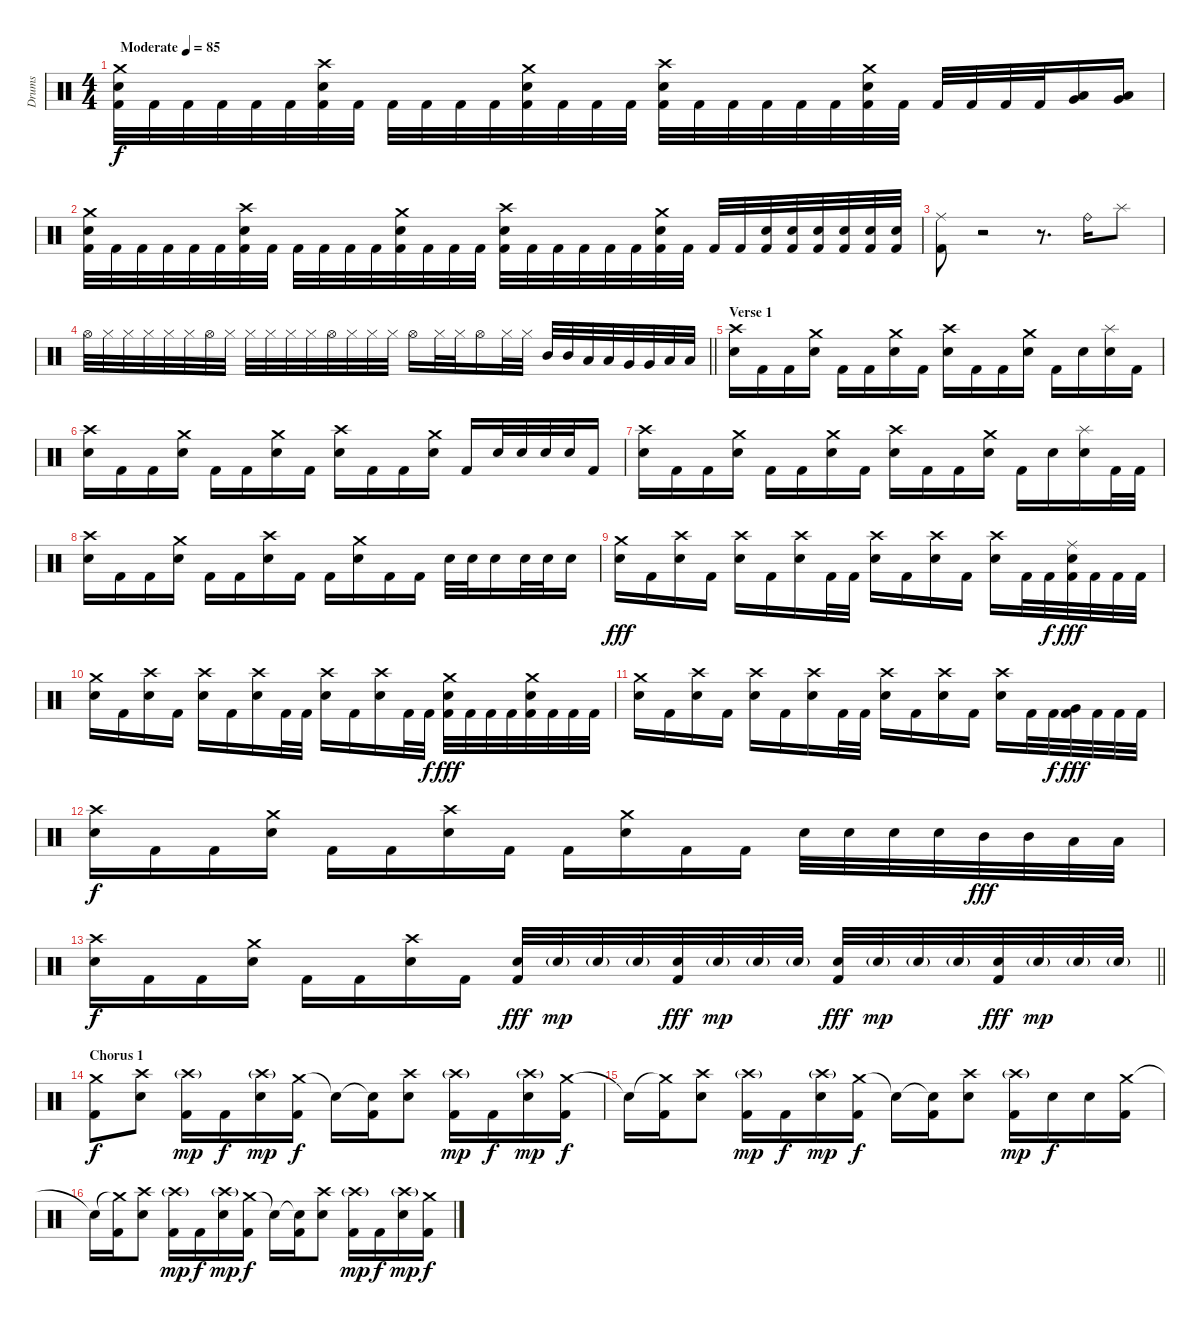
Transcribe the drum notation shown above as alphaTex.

\track ("Drums" "Drums") {instrument percussion}
\staff {score}
\articulation defaults
\ts (4 4)
\tempo (85 "Moderate")
\clef neutral
\ks c
("Crash medium (hit)" "Electric Snare (hit)" "Kick (hit) 2").32{dy f} "Kick (hit) 2".32 "Kick (hit) 2".32 "Kick (hit) 2".32 "Kick (hit) 2".32 "Kick (hit) 2".32 ("Crash high (hit)" "Electric Snare (hit)" "Kick (hit) 2").32 "Kick (hit) 2".32 "Kick (hit) 2".32 "Kick (hit) 2".32 "Kick (hit) 2".32 "Kick (hit) 2".32 ("Crash medium (hit)" "Electric Snare (hit)" "Kick (hit) 2").32 "Kick (hit) 2".32 "Kick (hit) 2".32 "Kick (hit) 2".32 ("Crash high (hit)" "Electric Snare (hit)" "Kick (hit) 2").32 "Kick (hit) 2".32 "Kick (hit) 2".32 "Kick (hit) 2".32 "Kick (hit) 2".32 "Kick (hit) 2".32 ("Crash medium (hit)" "Electric Snare (hit)" "Kick (hit) 2").32 "Kick (hit) 2".32 "Kick (hit) 2".32 "Kick (hit) 2".32 "Kick (hit) 2".32 "Kick (hit) 2".32 ("Very Low Tom (hit)" "Low Floor Tom (hit)").16 ("Very Low Tom (hit)" "Low Floor Tom (hit)").16 |
("Crash medium (hit)" "Electric Snare (hit)" "Kick (hit) 2").32 "Kick (hit) 2".32 "Kick (hit) 2".32 "Kick (hit) 2".32 "Kick (hit) 2".32 "Kick (hit) 2".32 ("Crash high (hit)" "Electric Snare (hit)" "Kick (hit) 2").32 "Kick (hit) 2".32 "Kick (hit) 2".32 "Kick (hit) 2".32 "Kick (hit) 2".32 "Kick (hit) 2".32 ("Crash medium (hit)" "Electric Snare (hit)" "Kick (hit) 2").32 "Kick (hit) 2".32 "Kick (hit) 2".32 "Kick (hit) 2".32 ("Crash high (hit)" "Electric Snare (hit)" "Kick (hit) 2").32 "Kick (hit) 2".32 "Kick (hit) 2".32 "Kick (hit) 2".32 "Kick (hit) 2".32 "Kick (hit) 2".32 ("Crash medium (hit)" "Electric Snare (hit)" "Kick (hit) 2").32 "Kick (hit) 2".32 "Kick (hit) 2".32 "Kick (hit) 2".32 ("Electric Snare (hit)" "Kick (hit) 2").32 ("Electric Snare (hit)" "Kick (hit) 2").32 ("Electric Snare (hit)" "Kick (hit) 2").32 ("Electric Snare (hit)" "Kick (hit) 2").32 ("Electric Snare (hit)" "Kick (hit) 2").32 ("Electric Snare (hit)" "Kick (hit) 2").32 |
("Ride (middle)" "Kick (hit) 2").8 r.2 r.8{d} "Ride (bell)".16 "Splash (hit)".8 |
\barLineRight lightlight "Hi-Hat (open)".32 "Hi-Hat (closed)".32 "Hi-Hat (closed)".32 "Hi-Hat (closed)".32 "Hi-Hat (closed)".32 "Hi-Hat (closed)".32 "Hi-Hat (open)".32 "Hi-Hat (closed)".32 "Hi-Hat (closed)".32 "Hi-Hat (closed)".32 "Hi-Hat (closed)".32 "Hi-Hat (closed)".32 "Hi-Hat (open)".32 "Hi-Hat (closed)".32 "Hi-Hat (closed)".32 "Hi-Hat (closed)".32 "Hi-Hat (open)".16 "Hi-Hat (closed)".32 "Hi-Hat (closed)".32 "Hi-Hat (open)".16 "Hi-Hat (closed)".32 "Hi-Hat (closed)".32 "Mid Tom (hit)".32 "Mid Tom (hit)".32 "Low Tom (hit)".32 "Low Tom (hit)".32 "Very Low Tom (hit)".32 "Very Low Tom (hit)".32 "Low Floor Tom (hit)".32 "Low Floor Tom (hit)".32
|
\section ("" "Verse 1")
("Crash high (hit)" "Electric Snare (hit)").16 "Kick (hit) 2".16 "Kick (hit) 2".16 ("Crash medium (hit)" "Electric Snare (hit)").16 "Kick (hit) 2".16 "Kick (hit) 2".16 ("Crash medium (hit)" "Electric Snare (hit)").16 "Kick (hit) 2".16 ("Crash high (hit)" "Electric Snare (hit)").16 "Kick (hit) 2".16 "Kick (hit) 2".16 ("Crash medium (hit)" "Electric Snare (hit)").16 "Kick (hit) 2".16 "Electric Snare (hit)".16 ("Splash (hit)" "Electric Snare (hit)").16 "Kick (hit) 2".16 |
("Crash high (hit)" "Electric Snare (hit)").16 "Kick (hit) 2".16 "Kick (hit) 2".16 ("Crash medium (hit)" "Electric Snare (hit)").16 "Kick (hit) 2".16 "Kick (hit) 2".16 ("Crash medium (hit)" "Electric Snare (hit)").16 "Kick (hit) 2".16 ("Crash high (hit)" "Electric Snare (hit)").16 "Kick (hit) 2".16 "Kick (hit) 2".16 ("Crash medium (hit)" "Electric Snare (hit)").16 "Kick (hit) 2".16 "Electric Snare (hit)".32 "Electric Snare (hit)".32 "Electric Snare (hit)".32 "Electric Snare (hit)".32 "Kick (hit) 2".16 |
("Crash high (hit)" "Electric Snare (hit)").16 "Kick (hit) 2".16 "Kick (hit) 2".16 ("Crash medium (hit)" "Electric Snare (hit)").16 "Kick (hit) 2".16 "Kick (hit) 2".16 ("Crash medium (hit)" "Electric Snare (hit)").16 "Kick (hit) 2".16 ("Crash high (hit)" "Electric Snare (hit)").16 "Kick (hit) 2".16 "Kick (hit) 2".16 ("Crash medium (hit)" "Electric Snare (hit)").16 "Kick (hit) 2".16 "Electric Snare (hit)".16 ("Splash (hit)" "Electric Snare (hit)").16 "Kick (hit) 2".32 "Kick (hit) 2".32 |
("Crash high (hit)" "Electric Snare (hit)").16 "Kick (hit) 2".16 "Kick (hit) 2".16 ("Crash medium (hit)" "Electric Snare (hit)").16 "Kick (hit) 2".16 "Kick (hit) 2".16 ("Crash high (hit)" "Electric Snare (hit)").16 "Kick (hit) 2".16 "Kick (hit) 2".16 ("Crash medium (hit)" "Electric Snare (hit)").16 "Kick (hit) 2".16 "Kick (hit) 2".16 "Electric Snare (hit)".32 "Electric Snare (hit)".32 "Electric Snare (hit)".16 "Electric Snare (hit)".32 "Electric Snare (hit)".32 "Electric Snare (hit)".16 |
("Crash medium (hit)" "Electric Snare (hit)").16{dy fff} "Kick (hit) 2".16 ("Crash high (hit)" "Electric Snare (hit)").16 "Kick (hit) 2".16 ("Crash high (hit)" "Electric Snare (hit)").16 "Kick (hit) 2".16 ("Crash high (hit)" "Electric Snare (hit)").16 "Kick (hit) 2".32 "Kick (hit) 2".32 ("Crash high (hit)" "Electric Snare (hit)").16 "Kick (hit) 2".16 ("Crash high (hit)" "Electric Snare (hit)").16 "Kick (hit) 2".16 ("Crash high (hit)" "Electric Snare (hit)").16 "Kick (hit) 2".32 "Kick (hit) 2".32{dy f} ("Ride (middle)" "Electric Snare (hit)" "Kick (hit) 2").32{dy fff} "Kick (hit) 2".32 "Kick (hit) 2".32 "Kick (hit) 2".32 |
("Crash medium (hit)" "Electric Snare (hit)").16 "Kick (hit) 2".16 ("Crash high (hit)" "Electric Snare (hit)").16 "Kick (hit) 2".16 ("Crash high (hit)" "Electric Snare (hit)").16 "Kick (hit) 2".16 ("Crash high (hit)" "Electric Snare (hit)").16 "Kick (hit) 2".32 "Kick (hit) 2".32 ("Crash high (hit)" "Electric Snare (hit)").16 "Kick (hit) 2".16 ("Crash high (hit)" "Electric Snare (hit)").16 "Kick (hit) 2".32 "Kick (hit) 2".32{dy f} ("Crash medium (hit)" "Electric Snare (hit)" "Kick (hit) 2").32{dy fff} "Kick (hit) 2".32 "Kick (hit) 2".32 "Kick (hit) 2".32 ("Crash medium (hit)" "Electric Snare (hit)" "Kick (hit) 2").32 "Kick (hit) 2".32 "Kick (hit) 2".32 "Kick (hit) 2".32 |
("Crash medium (hit)" "Electric Snare (hit)").16 "Kick (hit) 2".16 ("Crash high (hit)" "Electric Snare (hit)").16 "Kick (hit) 2".16 ("Crash high (hit)" "Electric Snare (hit)").16 "Kick (hit) 2".16 ("Crash high (hit)" "Electric Snare (hit)").16 "Kick (hit) 2".32 "Kick (hit) 2".32 ("Crash high (hit)" "Electric Snare (hit)").16 "Kick (hit) 2".16 ("Crash high (hit)" "Electric Snare (hit)").16 "Kick (hit) 2".16 ("Crash high (hit)" "Electric Snare (hit)").16 "Kick (hit) 2".32 "Kick (hit) 2".32{dy f} ("Very Low Tom (hit)" "Kick (hit) 2").32{dy fff} "Kick (hit) 2".32 "Kick (hit) 2".32 "Kick (hit) 2".32 |
("Crash high (hit)" "Electric Snare (hit)").16{dy f} "Kick (hit) 2".16 "Kick (hit) 2".16 ("Crash medium (hit)" "Electric Snare (hit)").16 "Kick (hit) 2".16 "Kick (hit) 2".16 ("Crash high (hit)" "Electric Snare (hit)").16 "Kick (hit) 2".16 "Kick (hit) 2".16 ("Crash medium (hit)" "Electric Snare (hit)").16 "Kick (hit) 2".16 "Kick (hit) 2".16 "Electric Snare (hit)".32 "Electric Snare (hit)".32 "Electric Snare (hit)".32 "Electric Snare (hit)".32 "Mid Tom (hit)".32{dy fff} "Mid Tom (hit)".32 "Low Tom (hit)".32 "Low Tom (hit)".32 |
\barLineRight lightlight
("Crash high (hit)" "Electric Snare (hit)").16{dy f} "Kick (hit) 2".16 "Kick (hit) 2".16 ("Crash medium (hit)" "Electric Snare (hit)").16 "Kick (hit) 2".16 "Kick (hit) 2".16 ("Crash high (hit)" "Electric Snare (hit)").16 "Kick (hit) 2".16 ("Electric Snare (hit)" "Kick (hit) 2").32{dy fff} "Electric Snare (hit)"{g}.32{dy mp} "Electric Snare (hit)"{g}.32 "Electric Snare (hit)"{g}.32 ("Electric Snare (hit)" "Kick (hit) 2").32{dy fff} "Electric Snare (hit)"{g}.32{dy mp} "Electric Snare (hit)"{g}.32 "Electric Snare (hit)"{g}.32 ("Electric Snare (hit)" "Kick (hit) 2").32{dy fff} "Electric Snare (hit)"{g}.32{dy mp} "Electric Snare (hit)"{g}.32 "Electric Snare (hit)"{g}.32 ("Electric Snare (hit)" "Kick (hit) 2").32{dy fff} "Electric Snare (hit)"{g}.32{dy mp} "Electric Snare (hit)"{g}.32 "Electric Snare (hit)"{g}.32 |
\section ("" "Chorus 1")
("Crash medium (hit)" "Kick (hit) 2").8{dy f} ("Crash high (hit)" "Electric Snare (hit)").8 ("Crash high (hit)"{g} "Kick (hit) 2").16{dy mp} "Kick (hit) 2".16{dy f} ("Crash high (hit)"{g} "Electric Snare (hit)").16{dy mp} ("Crash medium (hit)" "Kick (hit) 2").16{dy f} "Snare (hit)"{t}.16 ("Snare (hit)"{t} "Kick (hit) 2").16 ("Crash high (hit)" "Electric Snare (hit)").8 ("Crash high (hit)"{g} "Kick (hit) 2").16{dy mp} "Kick (hit) 2".16{dy f} ("Crash high (hit)"{g} "Electric Snare (hit)").16{dy mp} ("Crash medium (hit)" "Kick (hit) 2").16{dy f} |
"Snare (hit)"{t}.16 ("Crash medium (hit)"{t} "Kick (hit) 2").16 ("Crash high (hit)" "Electric Snare (hit)").8 ("Crash high (hit)"{g} "Kick (hit) 2").16{dy mp} "Kick (hit) 2".16{dy f} ("Crash high (hit)"{g} "Electric Snare (hit)").16{dy mp} ("Crash medium (hit)" "Kick (hit) 2").16{dy f} "Snare (hit)"{t}.16 ("Snare (hit)"{t} "Kick (hit) 2").16 ("Crash high (hit)" "Electric Snare (hit)").8 ("Crash high (hit)"{g} "Kick (hit) 2").16{dy mp} "Electric Snare (hit)".16{dy f} "Electric Snare (hit)".16 ("Crash medium (hit)" "Kick (hit) 2").16 |
"Snare (hit)"{t}.16 ("Crash medium (hit)"{t} "Kick (hit) 2").16 ("Crash high (hit)" "Electric Snare (hit)").8 ("Crash high (hit)"{g} "Kick (hit) 2").16{dy mp} "Kick (hit) 2".16{dy f} ("Crash high (hit)"{g} "Electric Snare (hit)").16{dy mp} ("Crash medium (hit)" "Kick (hit) 2").16{dy f} "Snare (hit)"{t}.16 ("Snare (hit)"{t} "Kick (hit) 2").16 ("Crash high (hit)" "Electric Snare (hit)").8 ("Crash high (hit)"{g} "Kick (hit) 2").16{dy mp} "Kick (hit) 2".16{dy f} ("Crash high (hit)"{g} "Electric Snare (hit)").16{dy mp} ("Crash medium (hit)" "Kick (hit) 2").16{dy f}
